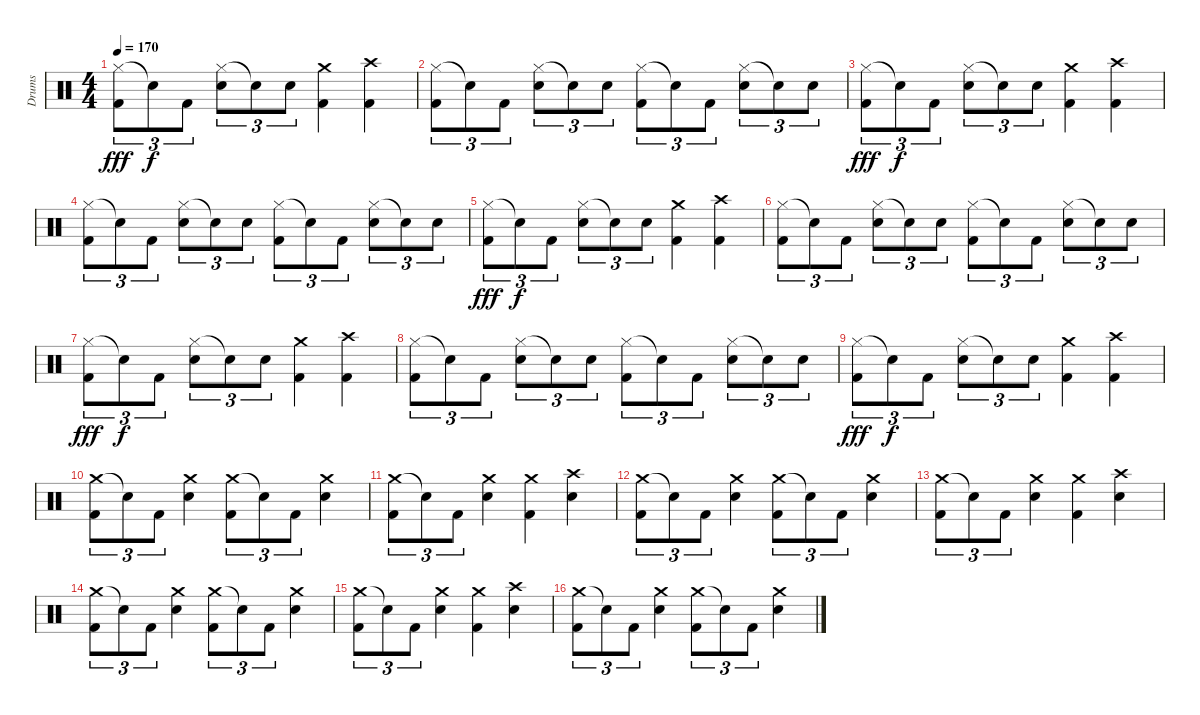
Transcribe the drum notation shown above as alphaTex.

\track ("Drums" "Drums") {instrument percussion}
\staff {score}
\articulation defaults
\ts (4 4)
\tempo 170
\clef neutral
\ks c
("Hi-Hat (closed)" "Kick (hit) 2").8{tu (3 2) dy fff} "Snare (hit)"{t}.8{tu (3 2) dy f} "Kick (hit) 2".8{tu (3 2)} ("Hi-Hat (closed)" "Snare (hit) 2").8{tu (3 2)} "Snare (hit)"{t}.8{tu (3 2)} "Snare (hit) 2".8{tu (3 2)} ("Crash medium (hit)" "Kick (hit) 2").4 ("Crash high (hit)" "Kick (hit) 2").4 |
("Hi-Hat (closed)" "Kick (hit) 2").8{tu (3 2)} "Snare (hit)"{t}.8{tu (3 2)} "Kick (hit) 2".8{tu (3 2)} ("Hi-Hat (closed)" "Snare (hit) 2").8{tu (3 2)} "Snare (hit)"{t}.8{tu (3 2)} "Snare (hit) 2".8{tu (3 2)} ("Hi-Hat (closed)" "Kick (hit) 2").8{tu (3 2)} "Snare (hit)"{t}.8{tu (3 2)} "Kick (hit) 2".8{tu (3 2)} ("Hi-Hat (closed)" "Snare (hit) 2").8{tu (3 2)} "Snare (hit)"{t}.8{tu (3 2)} "Snare (hit) 2".8{tu (3 2)} |
("Hi-Hat (closed)" "Kick (hit) 2").8{tu (3 2) dy fff} "Snare (hit)"{t}.8{tu (3 2) dy f} "Kick (hit) 2".8{tu (3 2)} ("Hi-Hat (closed)" "Snare (hit) 2").8{tu (3 2)} "Snare (hit)"{t}.8{tu (3 2)} "Snare (hit) 2".8{tu (3 2)} ("Crash medium (hit)" "Kick (hit) 2").4 ("Crash high (hit)" "Kick (hit) 2").4 |
("Hi-Hat (closed)" "Kick (hit) 2").8{tu (3 2)} "Snare (hit)"{t}.8{tu (3 2)} "Kick (hit) 2".8{tu (3 2)} ("Hi-Hat (closed)" "Snare (hit) 2").8{tu (3 2)} "Snare (hit)"{t}.8{tu (3 2)} "Snare (hit) 2".8{tu (3 2)} ("Hi-Hat (closed)" "Kick (hit) 2").8{tu (3 2)} "Snare (hit)"{t}.8{tu (3 2)} "Kick (hit) 2".8{tu (3 2)} ("Hi-Hat (closed)" "Snare (hit) 2").8{tu (3 2)} "Snare (hit)"{t}.8{tu (3 2)} "Snare (hit) 2".8{tu (3 2)} |
("Hi-Hat (closed)" "Kick (hit) 2").8{tu (3 2) dy fff} "Snare (hit)"{t}.8{tu (3 2) dy f} "Kick (hit) 2".8{tu (3 2)} ("Hi-Hat (closed)" "Snare (hit) 2").8{tu (3 2)} "Snare (hit)"{t}.8{tu (3 2)} "Snare (hit) 2".8{tu (3 2)} ("Crash medium (hit)" "Kick (hit) 2").4 ("Crash high (hit)" "Kick (hit) 2").4 |
("Hi-Hat (closed)" "Kick (hit) 2").8{tu (3 2)} "Snare (hit)"{t}.8{tu (3 2)} "Kick (hit) 2".8{tu (3 2)} ("Hi-Hat (closed)" "Snare (hit) 2").8{tu (3 2)} "Snare (hit)"{t}.8{tu (3 2)} "Snare (hit) 2".8{tu (3 2)} ("Hi-Hat (closed)" "Kick (hit) 2").8{tu (3 2)} "Snare (hit)"{t}.8{tu (3 2)} "Kick (hit) 2".8{tu (3 2)} ("Hi-Hat (closed)" "Snare (hit) 2").8{tu (3 2)} "Snare (hit)"{t}.8{tu (3 2)} "Snare (hit) 2".8{tu (3 2)} |
("Hi-Hat (closed)" "Kick (hit) 2").8{tu (3 2) dy fff} "Snare (hit)"{t}.8{tu (3 2) dy f} "Kick (hit) 2".8{tu (3 2)} ("Hi-Hat (closed)" "Snare (hit) 2").8{tu (3 2)} "Snare (hit)"{t}.8{tu (3 2)} "Snare (hit) 2".8{tu (3 2)} ("Crash medium (hit)" "Kick (hit) 2").4 ("Crash high (hit)" "Kick (hit) 2").4 |
("Hi-Hat (closed)" "Kick (hit) 2").8{tu (3 2)} "Snare (hit)"{t}.8{tu (3 2)} "Kick (hit) 2".8{tu (3 2)} ("Hi-Hat (closed)" "Snare (hit) 2").8{tu (3 2)} "Snare (hit)"{t}.8{tu (3 2)} "Snare (hit) 2".8{tu (3 2)} ("Hi-Hat (closed)" "Kick (hit) 2").8{tu (3 2)} "Snare (hit)"{t}.8{tu (3 2)} "Kick (hit) 2".8{tu (3 2)} ("Hi-Hat (closed)" "Snare (hit) 2").8{tu (3 2)} "Snare (hit)"{t}.8{tu (3 2)} "Snare (hit) 2".8{tu (3 2)} |
("Hi-Hat (closed)" "Kick (hit) 2").8{tu (3 2) dy fff} "Snare (hit)"{t}.8{tu (3 2) dy f} "Kick (hit) 2".8{tu (3 2)} ("Hi-Hat (closed)" "Snare (hit) 2").8{tu (3 2)} "Snare (hit)"{t}.8{tu (3 2)} "Snare (hit) 2".8{tu (3 2)} ("Crash medium (hit)" "Kick (hit) 2").4 ("Crash high (hit)" "Kick (hit) 2").4 |
("Crash medium (hit)" "Kick (hit) 2").8{tu (3 2)} "Snare (hit)"{t}.8{tu (3 2)} "Kick (hit) 2".8{tu (3 2)} ("Crash medium (hit)" "Snare (hit) 2").4 ("Crash medium (hit)" "Kick (hit) 2").8{tu (3 2)} "Snare (hit)"{t}.8{tu (3 2)} "Kick (hit) 2".8{tu (3 2)} ("Crash medium (hit)" "Snare (hit) 2").4 |
("Crash medium (hit)" "Kick (hit) 2").8{tu (3 2)} "Snare (hit)"{t}.8{tu (3 2)} "Kick (hit) 2".8{tu (3 2)} ("Crash medium (hit)" "Snare (hit) 2").4 ("Crash medium (hit)" "Kick (hit) 2").4 ("Crash high (hit)" "Snare (hit) 2").4 |
("Crash medium (hit)" "Kick (hit) 2").8{tu (3 2)} "Snare (hit)"{t}.8{tu (3 2)} "Kick (hit) 2".8{tu (3 2)} ("Crash medium (hit)" "Snare (hit) 2").4 ("Crash medium (hit)" "Kick (hit) 2").8{tu (3 2)} "Snare (hit)"{t}.8{tu (3 2)} "Kick (hit) 2".8{tu (3 2)} ("Crash medium (hit)" "Snare (hit) 2").4 |
("Crash medium (hit)" "Kick (hit) 2").8{tu (3 2)} "Snare (hit)"{t}.8{tu (3 2)} "Kick (hit) 2".8{tu (3 2)} ("Crash medium (hit)" "Snare (hit) 2").4 ("Crash medium (hit)" "Kick (hit) 2").4 ("Crash high (hit)" "Snare (hit) 2").4 |
("Crash medium (hit)" "Kick (hit) 2").8{tu (3 2)} "Snare (hit)"{t}.8{tu (3 2)} "Kick (hit) 2".8{tu (3 2)} ("Crash medium (hit)" "Snare (hit) 2").4 ("Crash medium (hit)" "Kick (hit) 2").8{tu (3 2)} "Snare (hit)"{t}.8{tu (3 2)} "Kick (hit) 2".8{tu (3 2)} ("Crash medium (hit)" "Snare (hit) 2").4 |
("Crash medium (hit)" "Kick (hit) 2").8{tu (3 2)} "Snare (hit)"{t}.8{tu (3 2)} "Kick (hit) 2".8{tu (3 2)} ("Crash medium (hit)" "Snare (hit) 2").4 ("Crash medium (hit)" "Kick (hit) 2").4 ("Crash high (hit)" "Snare (hit) 2").4 |
("Crash medium (hit)" "Kick (hit) 2").8{tu (3 2)} "Snare (hit)"{t}.8{tu (3 2)} "Kick (hit) 2".8{tu (3 2)} ("Crash medium (hit)" "Snare (hit) 2").4 ("Crash medium (hit)" "Kick (hit) 2").8{tu (3 2)} "Snare (hit)"{t}.8{tu (3 2)} "Kick (hit) 2".8{tu (3 2)} ("Crash medium (hit)" "Snare (hit) 2").4
